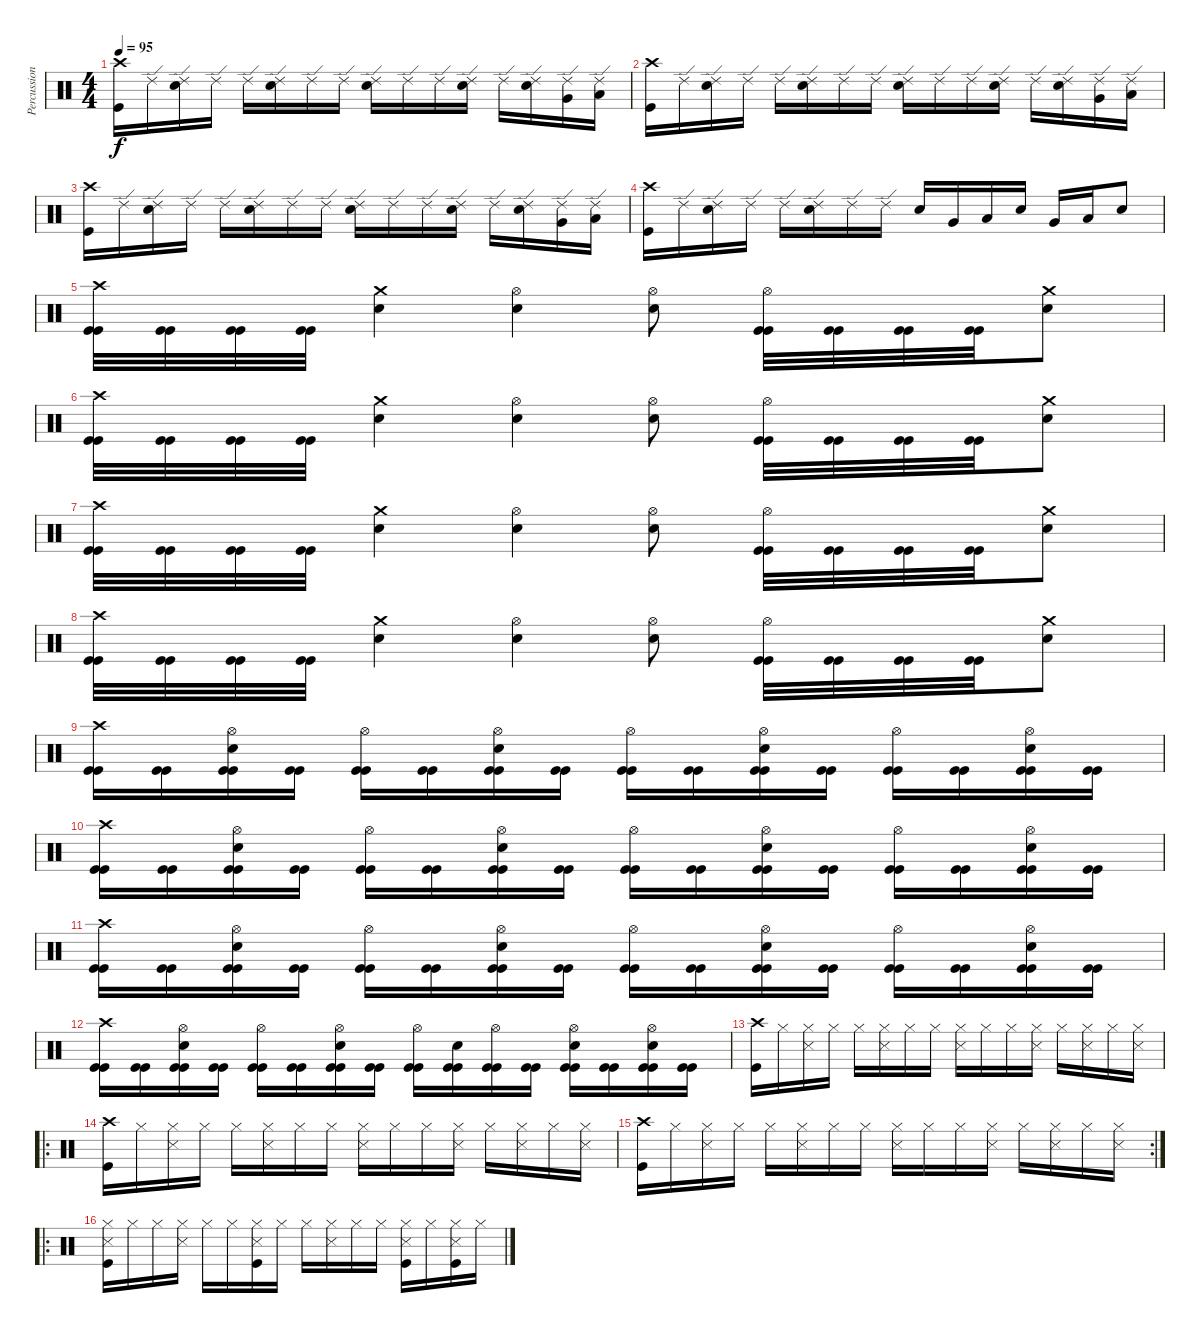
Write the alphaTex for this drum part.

\track ("Percussion" "Percussion") {instrument percussion}
\staff {score}
\articulation defaults
\ts (4 4)
\tempo 95
\clef neutral
\ks c
("Crash high (hit)" "Kick (hit)").16{dy f} "Ride (edge) 2".16 ("Ride (edge) 2" "Electric Snare (hit)").16 "Ride (edge) 2".16 "Ride (edge) 2".16 ("Ride (edge) 2" "Electric Snare (hit)").16 "Ride (edge) 2".16 "Ride (edge) 2".16 ("Ride (edge) 2" "Electric Snare (hit)").16 "Ride (edge) 2".16 "Ride (edge) 2".16 ("Ride (edge) 2" "Electric Snare (hit)").16 "Ride (edge) 2".16 ("Ride (edge) 2" "Electric Snare (hit)").16 ("Ride (edge) 2" "Very Low Tom (hit)").16 ("Ride (edge) 2" "Low Floor Tom (hit)").16 |
("Crash high (hit)" "Kick (hit)").16 "Ride (edge) 2".16 ("Ride (edge) 2" "Electric Snare (hit)").16 "Ride (edge) 2".16 "Ride (edge) 2".16 ("Ride (edge) 2" "Electric Snare (hit)").16 "Ride (edge) 2".16 "Ride (edge) 2".16 ("Ride (edge) 2" "Electric Snare (hit)").16 "Ride (edge) 2".16 "Ride (edge) 2".16 ("Ride (edge) 2" "Electric Snare (hit)").16 "Ride (edge) 2".16 ("Ride (edge) 2" "Electric Snare (hit)").16 ("Ride (edge) 2" "Very Low Tom (hit)").16 ("Ride (edge) 2" "Low Floor Tom (hit)").16 |
("Crash high (hit)" "Kick (hit)").16 "Ride (edge) 2".16 ("Ride (edge) 2" "Electric Snare (hit)").16 "Ride (edge) 2".16 "Ride (edge) 2".16 ("Ride (edge) 2" "Electric Snare (hit)").16 "Ride (edge) 2".16 "Ride (edge) 2".16 ("Ride (edge) 2" "Electric Snare (hit)").16 "Ride (edge) 2".16 "Ride (edge) 2".16 ("Ride (edge) 2" "Electric Snare (hit)").16 "Ride (edge) 2".16 ("Ride (edge) 2" "Electric Snare (hit)").16 ("Ride (edge) 2" "Very Low Tom (hit)").16 ("Ride (edge) 2" "Low Floor Tom (hit)").16 |
("Crash high (hit)" "Kick (hit)").16 "Ride (edge) 2".16 ("Ride (edge) 2" "Electric Snare (hit)").16 "Ride (edge) 2".16 "Ride (edge) 2".16 ("Ride (edge) 2" "Electric Snare (hit)").16 "Ride (edge) 2".16 "Ride (edge) 2".16 "Electric Snare (hit)".16 "Very Low Tom (hit)".16 "Low Floor Tom (hit)".16 "Electric Snare (hit)".16 "Very Low Tom (hit)".16 "Low Floor Tom (hit)".16 "Electric Snare (hit)".8 |
("Crash high (hit)" "Kick (hit)" "Kick (hit)").32 ("Kick (hit)" "Kick (hit)").32 ("Kick (hit)" "Kick (hit)").32 ("Kick (hit)" "Kick (hit)").32 ("Crash medium (hit)" "Electric Snare (hit)").4 ("Hi-Hat (open)" "Electric Snare (hit)").4 ("Hi-Hat (open)" "Electric Snare (hit)").8 ("Hi-Hat (open)" "Kick (hit)" "Kick (hit)").32 ("Kick (hit)" "Kick (hit)").32 ("Kick (hit)" "Kick (hit)").32 ("Kick (hit)" "Kick (hit)").32 ("Crash medium (hit)" "Electric Snare (hit)").8 |
("Crash high (hit)" "Kick (hit)" "Kick (hit)").32 ("Kick (hit)" "Kick (hit)").32 ("Kick (hit)" "Kick (hit)").32 ("Kick (hit)" "Kick (hit)").32 ("Crash medium (hit)" "Electric Snare (hit)").4 ("Hi-Hat (open)" "Electric Snare (hit)").4 ("Hi-Hat (open)" "Electric Snare (hit)").8 ("Hi-Hat (open)" "Kick (hit)" "Kick (hit)").32 ("Kick (hit)" "Kick (hit)").32 ("Kick (hit)" "Kick (hit)").32 ("Kick (hit)" "Kick (hit)").32 ("Crash medium (hit)" "Electric Snare (hit)").8 |
("Crash high (hit)" "Kick (hit)" "Kick (hit)").32 ("Kick (hit)" "Kick (hit)").32 ("Kick (hit)" "Kick (hit)").32 ("Kick (hit)" "Kick (hit)").32 ("Crash medium (hit)" "Electric Snare (hit)").4 ("Hi-Hat (open)" "Electric Snare (hit)").4 ("Hi-Hat (open)" "Electric Snare (hit)").8 ("Hi-Hat (open)" "Kick (hit)" "Kick (hit)").32 ("Kick (hit)" "Kick (hit)").32 ("Kick (hit)" "Kick (hit)").32 ("Kick (hit)" "Kick (hit)").32 ("Crash medium (hit)" "Electric Snare (hit)").8 |
("Crash high (hit)" "Kick (hit)" "Kick (hit)").32 ("Kick (hit)" "Kick (hit)").32 ("Kick (hit)" "Kick (hit)").32 ("Kick (hit)" "Kick (hit)").32 ("Crash medium (hit)" "Electric Snare (hit)").4 ("Hi-Hat (open)" "Electric Snare (hit)").4 ("Hi-Hat (open)" "Electric Snare (hit)").8 ("Hi-Hat (open)" "Kick (hit)" "Kick (hit)").32 ("Kick (hit)" "Kick (hit)").32 ("Kick (hit)" "Kick (hit)").32 ("Kick (hit)" "Kick (hit)").32 ("Crash medium (hit)" "Electric Snare (hit)").8 |
("Crash high (hit)" "Kick (hit)" "Kick (hit)").16 ("Kick (hit)" "Kick (hit)").16 ("Hi-Hat (open)" "Electric Snare (hit)" "Kick (hit)" "Kick (hit)").16 ("Kick (hit)" "Kick (hit)").16 ("Hi-Hat (open)" "Kick (hit)" "Kick (hit)").16 ("Kick (hit)" "Kick (hit)").16 ("Hi-Hat (open)" "Electric Snare (hit)" "Kick (hit)" "Kick (hit)").16 ("Kick (hit)" "Kick (hit)").16 ("Hi-Hat (open)" "Kick (hit)" "Kick (hit)").16 ("Kick (hit)" "Kick (hit)").16 ("Hi-Hat (open)" "Electric Snare (hit)" "Kick (hit)" "Kick (hit)").16 ("Kick (hit)" "Kick (hit)").16 ("Hi-Hat (open)" "Kick (hit)" "Kick (hit)").16 ("Kick (hit)" "Kick (hit)").16 ("Hi-Hat (open)" "Electric Snare (hit)" "Kick (hit)" "Kick (hit)").16 ("Kick (hit)" "Kick (hit)").16 |
("Crash high (hit)" "Kick (hit)" "Kick (hit)").16 ("Kick (hit)" "Kick (hit)").16 ("Hi-Hat (open)" "Electric Snare (hit)" "Kick (hit)" "Kick (hit)").16 ("Kick (hit)" "Kick (hit)").16 ("Hi-Hat (open)" "Kick (hit)" "Kick (hit)").16 ("Kick (hit)" "Kick (hit)").16 ("Hi-Hat (open)" "Electric Snare (hit)" "Kick (hit)" "Kick (hit)").16 ("Kick (hit)" "Kick (hit)").16 ("Hi-Hat (open)" "Kick (hit)" "Kick (hit)").16 ("Kick (hit)" "Kick (hit)").16 ("Hi-Hat (open)" "Electric Snare (hit)" "Kick (hit)" "Kick (hit)").16 ("Kick (hit)" "Kick (hit)").16 ("Hi-Hat (open)" "Kick (hit)" "Kick (hit)").16 ("Kick (hit)" "Kick (hit)").16 ("Hi-Hat (open)" "Electric Snare (hit)" "Kick (hit)" "Kick (hit)").16 ("Kick (hit)" "Kick (hit)").16 |
("Crash high (hit)" "Kick (hit)" "Kick (hit)").16 ("Kick (hit)" "Kick (hit)").16 ("Hi-Hat (open)" "Electric Snare (hit)" "Kick (hit)" "Kick (hit)").16 ("Kick (hit)" "Kick (hit)").16 ("Hi-Hat (open)" "Kick (hit)" "Kick (hit)").16 ("Kick (hit)" "Kick (hit)").16 ("Hi-Hat (open)" "Electric Snare (hit)" "Kick (hit)" "Kick (hit)").16 ("Kick (hit)" "Kick (hit)").16 ("Hi-Hat (open)" "Kick (hit)" "Kick (hit)").16 ("Kick (hit)" "Kick (hit)").16 ("Hi-Hat (open)" "Electric Snare (hit)" "Kick (hit)" "Kick (hit)").16 ("Kick (hit)" "Kick (hit)").16 ("Hi-Hat (open)" "Kick (hit)" "Kick (hit)").16 ("Kick (hit)" "Kick (hit)").16 ("Hi-Hat (open)" "Electric Snare (hit)" "Kick (hit)" "Kick (hit)").16 ("Kick (hit)" "Kick (hit)").16 |
("Crash high (hit)" "Kick (hit)" "Kick (hit)").16 ("Kick (hit)" "Kick (hit)").16 ("Hi-Hat (open)" "Electric Snare (hit)" "Kick (hit)" "Kick (hit)").16 ("Kick (hit)" "Kick (hit)").16 ("Hi-Hat (open)" "Kick (hit)" "Kick (hit)").16 ("Kick (hit)" "Kick (hit)").16 ("Hi-Hat (open)" "Electric Snare (hit)" "Kick (hit)" "Kick (hit)").16 ("Kick (hit)" "Kick (hit)").16 ("Hi-Hat (open)" "Kick (hit)" "Kick (hit)").16 ("Electric Snare (hit)" "Kick (hit)" "Kick (hit)").16 ("Hi-Hat (open)" "Kick (hit)" "Kick (hit)").16 ("Kick (hit)" "Kick (hit)").16 ("Hi-Hat (open)" "Electric Snare (hit)" "Kick (hit)" "Kick (hit)").16 ("Kick (hit)" "Kick (hit)").16 ("Hi-Hat (open)" "Electric Snare (hit)" "Kick (hit)" "Kick (hit)").16 ("Kick (hit)" "Kick (hit)").16 |
("Crash high (hit)" "Kick (hit)").16 "Hi-Hat (closed)".16 ("Hi-Hat (closed)" "Snare (side stick) 3").16 "Hi-Hat (closed)".16 "Hi-Hat (closed)".16 ("Hi-Hat (closed)" "Snare (side stick) 3").16 "Hi-Hat (closed)".16 "Hi-Hat (closed)".16 ("Hi-Hat (closed)" "Snare (side stick) 3").16 "Hi-Hat (closed)".16 "Hi-Hat (closed)".16 ("Hi-Hat (closed)" "Snare (side stick) 3").16 "Hi-Hat (closed)".16 ("Hi-Hat (closed)" "Snare (side stick) 3").16 "Hi-Hat (closed)".16 ("Hi-Hat (closed)" "Snare (side stick) 3").16 |
\ro
("Crash high (hit)" "Kick (hit)").16 "Hi-Hat (closed)".16 ("Hi-Hat (closed)" "Snare (side stick) 3").16 "Hi-Hat (closed)".16 "Hi-Hat (closed)".16 ("Hi-Hat (closed)" "Snare (side stick) 3").16 "Hi-Hat (closed)".16 "Hi-Hat (closed)".16 ("Hi-Hat (closed)" "Snare (side stick) 3").16 "Hi-Hat (closed)".16 "Hi-Hat (closed)".16 ("Hi-Hat (closed)" "Snare (side stick) 3").16 "Hi-Hat (closed)".16 ("Hi-Hat (closed)" "Snare (side stick) 3").16 "Hi-Hat (closed)".16 ("Hi-Hat (closed)" "Snare (side stick) 3").16 |
\rc 2
("Crash high (hit)" "Kick (hit)").16 "Hi-Hat (closed)".16 ("Hi-Hat (closed)" "Snare (side stick) 3").16 "Hi-Hat (closed)".16 "Hi-Hat (closed)".16 ("Hi-Hat (closed)" "Snare (side stick) 3").16 "Hi-Hat (closed)".16 "Hi-Hat (closed)".16 ("Hi-Hat (closed)" "Snare (side stick) 3").16 "Hi-Hat (closed)".16 "Hi-Hat (closed)".16 ("Hi-Hat (closed)" "Snare (side stick) 3").16 "Hi-Hat (closed)".16 ("Hi-Hat (closed)" "Snare (side stick) 3").16 "Hi-Hat (closed)".16 ("Hi-Hat (closed)" "Snare (side stick) 3").16 |
\ro
("Hi-Hat (closed)" "Snare (side stick) 3" "Kick (hit)").16 "Hi-Hat (closed)".16 "Hi-Hat (closed)".16 ("Hi-Hat (closed)" "Snare (side stick) 3").16 "Hi-Hat (closed)".16 "Hi-Hat (closed)".16 ("Hi-Hat (closed)" "Snare (side stick) 3" "Kick (hit)").16 "Hi-Hat (closed)".16 "Hi-Hat (closed)".16 ("Hi-Hat (closed)" "Snare (side stick) 3").16 "Hi-Hat (closed)".16 "Hi-Hat (closed)".16 ("Hi-Hat (closed)" "Snare (side stick) 3" "Kick (hit)").16 "Hi-Hat (closed)".16 ("Hi-Hat (closed)" "Snare (side stick) 3" "Kick (hit)").16 "Hi-Hat (closed)".16
